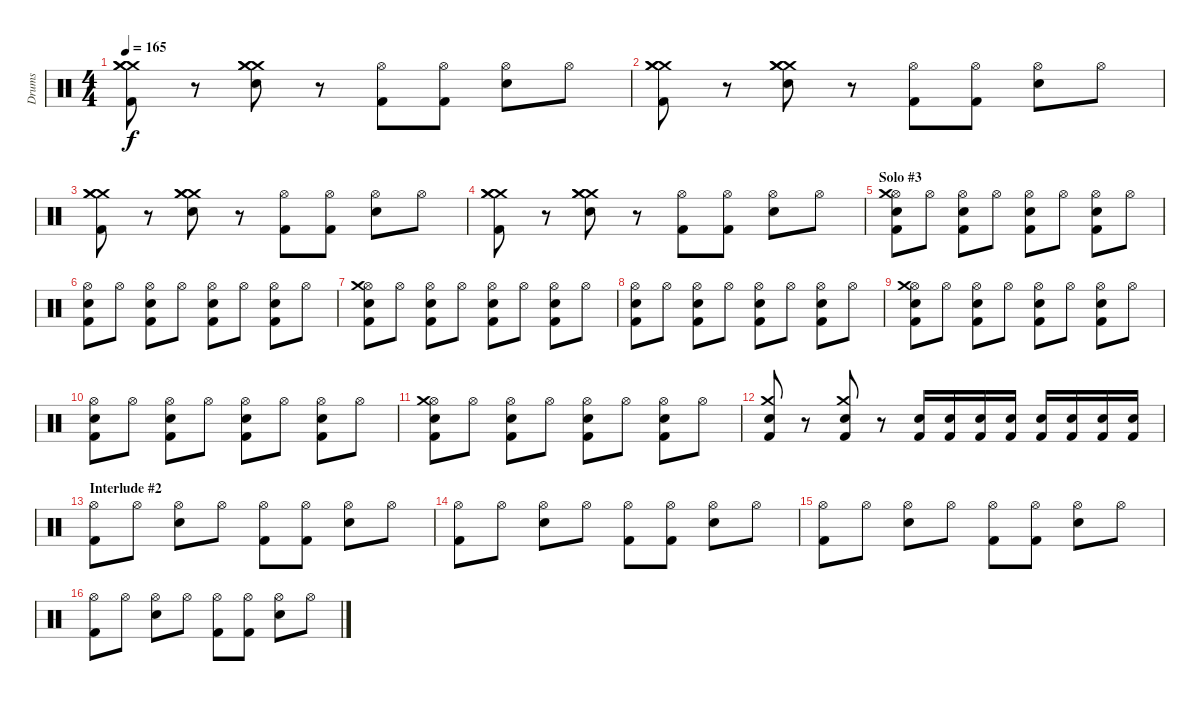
\track ("Drums" "Drums") {instrument percussion}
\staff {score}
\articulation defaults
\ts (4 4)
\tempo 165
\clef neutral
\ks c
("Kick (hit) 2" "Crash medium (hit)" "Crash medium (hit)" "Crash medium (hit)").8{dy f} r.8 ("Electric Snare (hit)" "Crash medium (hit)" "Crash medium (hit)" "Crash medium (hit)").8 r.8 ("Kick (hit) 2" "Hi-Hat (open)").8 ("Kick (hit) 2" "Hi-Hat (open)").8 ("Electric Snare (hit)" "Hi-Hat (open)").8 "Hi-Hat (open)".8 |
("Kick (hit) 2" "Crash medium (hit)" "Crash medium (hit)" "Crash medium (hit)").8 r.8 ("Electric Snare (hit)" "Crash medium (hit)" "Crash medium (hit)" "Crash medium (hit)").8 r.8 ("Kick (hit) 2" "Hi-Hat (open)").8 ("Kick (hit) 2" "Hi-Hat (open)").8 ("Electric Snare (hit)" "Hi-Hat (open)").8 "Hi-Hat (open)".8 |
("Kick (hit) 2" "Crash medium (hit)" "Crash medium (hit)" "Crash medium (hit)").8 r.8 ("Electric Snare (hit)" "Crash medium (hit)" "Crash medium (hit)" "Crash medium (hit)").8 r.8 ("Kick (hit) 2" "Hi-Hat (open)").8 ("Kick (hit) 2" "Hi-Hat (open)").8 ("Electric Snare (hit)" "Hi-Hat (open)").8 "Hi-Hat (open)".8 |
("Kick (hit) 2" "Crash medium (hit)" "Crash medium (hit)" "Crash medium (hit)").8 r.8 ("Electric Snare (hit)" "Crash medium (hit)" "Crash medium (hit)" "Crash medium (hit)").8 r.8 ("Kick (hit) 2" "Hi-Hat (open)").8 ("Kick (hit) 2" "Hi-Hat (open)").8 ("Electric Snare (hit)" "Hi-Hat (open)").8 "Hi-Hat (open)".8 |
\section ("" "Solo #3")
("Electric Snare (hit)" "Kick (hit) 2" "Hi-Hat (open)" "Crash medium (hit)").8 "Hi-Hat (open)".8 ("Electric Snare (hit)" "Kick (hit) 2" "Hi-Hat (open)").8 "Hi-Hat (open)".8 ("Electric Snare (hit)" "Kick (hit) 2" "Hi-Hat (open)").8 "Hi-Hat (open)".8 ("Electric Snare (hit)" "Kick (hit) 2" "Hi-Hat (open)").8 "Hi-Hat (open)".8 |
("Electric Snare (hit)" "Kick (hit) 2" "Hi-Hat (open)").8 "Hi-Hat (open)".8 ("Electric Snare (hit)" "Kick (hit) 2" "Hi-Hat (open)").8 "Hi-Hat (open)".8 ("Electric Snare (hit)" "Kick (hit) 2" "Hi-Hat (open)").8 "Hi-Hat (open)".8 ("Electric Snare (hit)" "Kick (hit) 2" "Hi-Hat (open)").8 "Hi-Hat (open)".8 |
("Electric Snare (hit)" "Kick (hit) 2" "Hi-Hat (open)" "Crash medium (hit)").8 "Hi-Hat (open)".8 ("Electric Snare (hit)" "Kick (hit) 2" "Hi-Hat (open)").8 "Hi-Hat (open)".8 ("Electric Snare (hit)" "Kick (hit) 2" "Hi-Hat (open)").8 "Hi-Hat (open)".8 ("Electric Snare (hit)" "Kick (hit) 2" "Hi-Hat (open)").8 "Hi-Hat (open)".8 |
("Electric Snare (hit)" "Kick (hit) 2" "Hi-Hat (open)").8 "Hi-Hat (open)".8 ("Electric Snare (hit)" "Kick (hit) 2" "Hi-Hat (open)").8 "Hi-Hat (open)".8 ("Electric Snare (hit)" "Kick (hit) 2" "Hi-Hat (open)").8 "Hi-Hat (open)".8 ("Electric Snare (hit)" "Kick (hit) 2" "Hi-Hat (open)").8 "Hi-Hat (open)".8 |
("Electric Snare (hit)" "Kick (hit) 2" "Hi-Hat (open)" "Crash medium (hit)").8 "Hi-Hat (open)".8 ("Electric Snare (hit)" "Kick (hit) 2" "Hi-Hat (open)").8 "Hi-Hat (open)".8 ("Electric Snare (hit)" "Kick (hit) 2" "Hi-Hat (open)").8 "Hi-Hat (open)".8 ("Electric Snare (hit)" "Kick (hit) 2" "Hi-Hat (open)").8 "Hi-Hat (open)".8 |
("Electric Snare (hit)" "Kick (hit) 2" "Hi-Hat (open)").8 "Hi-Hat (open)".8 ("Electric Snare (hit)" "Kick (hit) 2" "Hi-Hat (open)").8 "Hi-Hat (open)".8 ("Electric Snare (hit)" "Kick (hit) 2" "Hi-Hat (open)").8 "Hi-Hat (open)".8 ("Electric Snare (hit)" "Kick (hit) 2" "Hi-Hat (open)").8 "Hi-Hat (open)".8 |
("Electric Snare (hit)" "Kick (hit) 2" "Hi-Hat (open)" "Crash medium (hit)").8 "Hi-Hat (open)".8 ("Electric Snare (hit)" "Kick (hit) 2" "Hi-Hat (open)").8 "Hi-Hat (open)".8 ("Electric Snare (hit)" "Kick (hit) 2" "Hi-Hat (open)").8 "Hi-Hat (open)".8 ("Electric Snare (hit)" "Kick (hit) 2" "Hi-Hat (open)").8 "Hi-Hat (open)".8 |
("Electric Snare (hit)" "Kick (hit) 2" "Crash medium (hit)").8 r.8 ("Electric Snare (hit)" "Kick (hit) 2" "Crash medium (hit)").8 r.8 ("Electric Snare (hit)" "Kick (hit) 2").16 ("Electric Snare (hit)" "Kick (hit) 2").16 ("Electric Snare (hit)" "Kick (hit) 2").16 ("Electric Snare (hit)" "Kick (hit) 2").16 ("Electric Snare (hit)" "Kick (hit) 2").16 ("Electric Snare (hit)" "Kick (hit) 2").16 ("Electric Snare (hit)" "Kick (hit) 2").16 ("Electric Snare (hit)" "Kick (hit) 2").16 |
\section ("" "Interlude #2")
("Kick (hit) 2" "Hi-Hat (open)").8 "Hi-Hat (open)".8 ("Electric Snare (hit)" "Hi-Hat (open)").8 "Hi-Hat (open)".8 ("Kick (hit) 2" "Hi-Hat (open)").8 ("Kick (hit) 2" "Hi-Hat (open)").8 ("Electric Snare (hit)" "Hi-Hat (open)").8 "Hi-Hat (open)".8 |
("Kick (hit) 2" "Hi-Hat (open)").8 "Hi-Hat (open)".8 ("Electric Snare (hit)" "Hi-Hat (open)").8 "Hi-Hat (open)".8 ("Kick (hit) 2" "Hi-Hat (open)").8 ("Kick (hit) 2" "Hi-Hat (open)").8 ("Electric Snare (hit)" "Hi-Hat (open)").8 "Hi-Hat (open)".8 |
("Kick (hit) 2" "Hi-Hat (open)").8 "Hi-Hat (open)".8 ("Electric Snare (hit)" "Hi-Hat (open)").8 "Hi-Hat (open)".8 ("Kick (hit) 2" "Hi-Hat (open)").8 ("Kick (hit) 2" "Hi-Hat (open)").8 ("Electric Snare (hit)" "Hi-Hat (open)").8 "Hi-Hat (open)".8 |
("Kick (hit) 2" "Hi-Hat (open)").8 "Hi-Hat (open)".8 ("Electric Snare (hit)" "Hi-Hat (open)").8 "Hi-Hat (open)".8 ("Kick (hit) 2" "Hi-Hat (open)").8 ("Kick (hit) 2" "Hi-Hat (open)").8 ("Electric Snare (hit)" "Hi-Hat (open)").8 "Hi-Hat (open)".8
